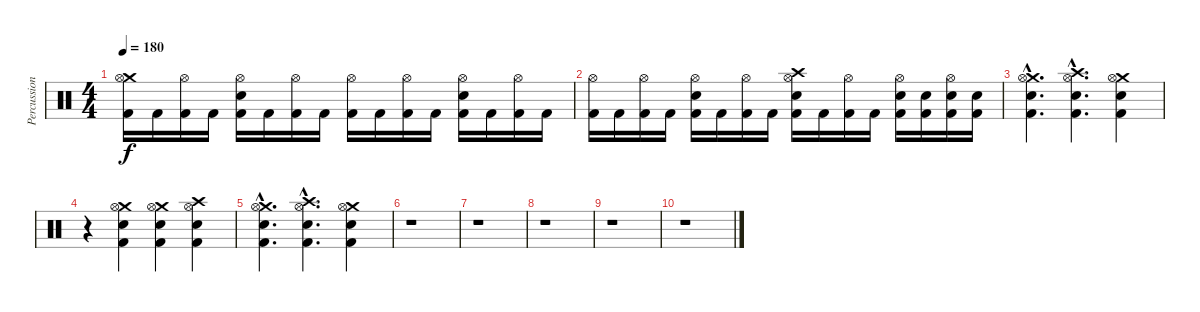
\track ("Percussion" "Percussion") {instrument percussion}
\staff {score}
\articulation defaults
\ts (4 4)
\tempo 180
\clef neutral
\ks c
("Crash medium (hit)" "Hi-Hat (open)" "Kick (hit) 2").16{dy f} "Kick (hit) 2".16 ("Hi-Hat (open)" "Kick (hit) 2").16 "Kick (hit) 2".16 ("Hi-Hat (open)" "Electric Snare (hit)" "Kick (hit) 2").16 "Kick (hit) 2".16 ("Hi-Hat (open)" "Kick (hit) 2").16 "Kick (hit) 2".16 ("Hi-Hat (open)" "Kick (hit) 2").16 "Kick (hit) 2".16 ("Hi-Hat (open)" "Kick (hit) 2").16 "Kick (hit) 2".16 ("Hi-Hat (open)" "Electric Snare (hit)" "Kick (hit) 2").16 "Kick (hit) 2".16 ("Hi-Hat (open)" "Kick (hit) 2").16 "Kick (hit) 2".16 |
("Hi-Hat (open)" "Kick (hit) 2").16 "Kick (hit) 2".16 ("Hi-Hat (open)" "Kick (hit) 2").16 "Kick (hit) 2".16 ("Hi-Hat (open)" "Electric Snare (hit)" "Kick (hit) 2").16 "Kick (hit) 2".16 ("Hi-Hat (open)" "Kick (hit) 2").16 "Kick (hit) 2".16 ("Crash high (hit)" "Hi-Hat (open)" "Electric Snare (hit)" "Kick (hit) 2").16 "Kick (hit) 2".16 ("Hi-Hat (open)" "Kick (hit) 2").16 "Kick (hit) 2".16 ("Hi-Hat (open)" "Electric Snare (hit)" "Kick (hit) 2").16 ("Electric Snare (hit)" "Kick (hit) 2").16 ("Hi-Hat (open)" "Electric Snare (hit)" "Kick (hit) 2").16 ("Electric Snare (hit)" "Kick (hit) 2").16 |
("Crash medium (hit)"{hac} "Hi-Hat (open)"{hac} "Electric Snare (hit)"{hac} "Kick (hit) 2"{hac}).4{d} ("Crash high (hit)"{hac} "Hi-Hat (open)"{hac} "Electric Snare (hit)"{hac} "Kick (hit) 2"{hac}).4{d} ("Crash medium (hit)" "Hi-Hat (open)" "Electric Snare (hit)" "Kick (hit) 2").4 |
r.4 ("Crash medium (hit)" "Hi-Hat (open)" "Electric Snare (hit)" "Kick (hit) 2").4 ("Crash medium (hit)" "Hi-Hat (open)" "Electric Snare (hit)" "Kick (hit) 2").4 ("Crash high (hit)" "Hi-Hat (open)" "Electric Snare (hit)" "Kick (hit) 2").4 |
("Crash medium (hit)"{hac} "Hi-Hat (open)"{hac} "Electric Snare (hit)"{hac} "Kick (hit) 2"{hac}).4{d} ("Crash high (hit)"{hac} "Hi-Hat (open)"{hac} "Electric Snare (hit)"{hac} "Kick (hit) 2"{hac}).4{d} ("Crash medium (hit)" "Hi-Hat (open)" "Electric Snare (hit)" "Kick (hit) 2").4 |
r.1 |
r.1 |
r.1 |
r.1 |
r.1
